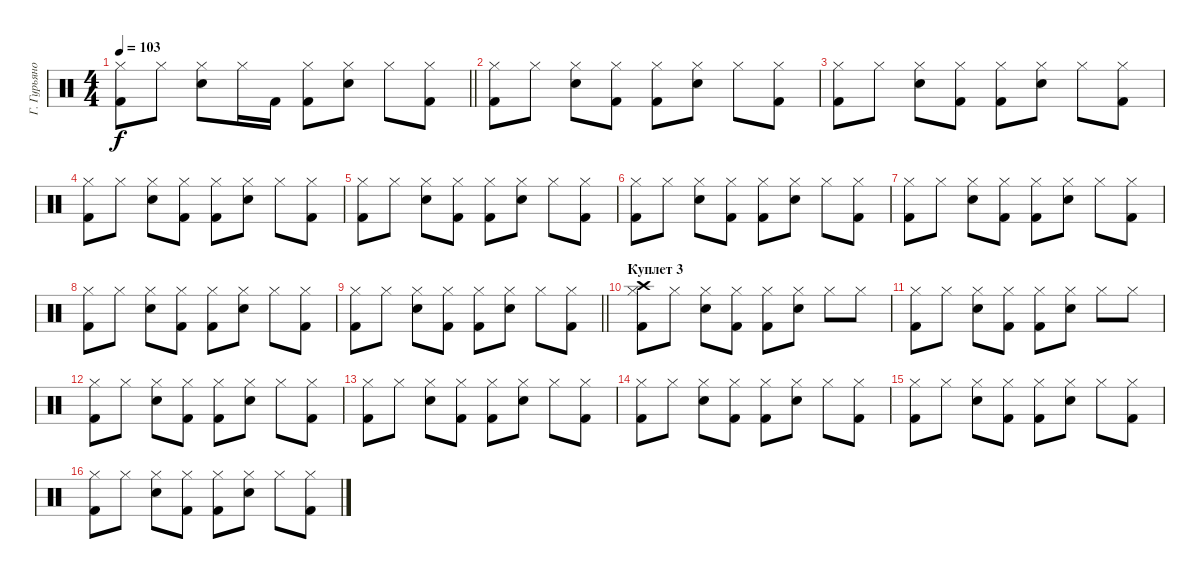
\track ("Г. Гурьянов" "Г. Гурьяно") {instrument percussion}
\staff
\articulation defaults
\ts (4 4)
\tempo 103
\clef neutral
\barLineRight lightlight
\ks c
("Hi-Hat (closed)" "Kick (hit) 2").8{dy f} "Hi-Hat (closed)".8 ("Hi-Hat (closed)" "Snare (hit) 2").8 "Hi-Hat (closed)".16 "Kick (hit) 2".16 ("Hi-Hat (closed)" "Kick (hit) 2").8 ("Hi-Hat (closed)" "Snare (hit) 2").8 "Hi-Hat (closed)".8 ("Hi-Hat (closed)" "Kick (hit) 2").8 |
("Hi-Hat (closed)" "Kick (hit) 2").8 "Hi-Hat (closed)".8 ("Hi-Hat (closed)" "Snare (hit) 2").8 ("Hi-Hat (closed)" "Kick (hit) 2").8 ("Hi-Hat (closed)" "Kick (hit) 2").8 ("Hi-Hat (closed)" "Snare (hit) 2").8 "Hi-Hat (closed)".8 ("Hi-Hat (closed)" "Kick (hit) 2").8 |
("Hi-Hat (closed)" "Kick (hit) 2").8 "Hi-Hat (closed)".8 ("Hi-Hat (closed)" "Snare (hit) 2").8 ("Hi-Hat (closed)" "Kick (hit) 2").8 ("Hi-Hat (closed)" "Kick (hit) 2").8 ("Hi-Hat (closed)" "Snare (hit) 2").8 "Hi-Hat (closed)".8 ("Hi-Hat (closed)" "Kick (hit) 2").8 |
("Hi-Hat (closed)" "Kick (hit) 2").8 "Hi-Hat (closed)".8 ("Hi-Hat (closed)" "Snare (hit) 2").8 ("Hi-Hat (closed)" "Kick (hit) 2").8 ("Hi-Hat (closed)" "Kick (hit) 2").8 ("Hi-Hat (closed)" "Snare (hit) 2").8 "Hi-Hat (closed)".8 ("Hi-Hat (closed)" "Kick (hit) 2").8 |
("Hi-Hat (closed)" "Kick (hit) 2").8 "Hi-Hat (closed)".8 ("Hi-Hat (closed)" "Snare (hit) 2").8 ("Hi-Hat (closed)" "Kick (hit) 2").8 ("Hi-Hat (closed)" "Kick (hit) 2").8 ("Hi-Hat (closed)" "Snare (hit) 2").8 "Hi-Hat (closed)".8 ("Hi-Hat (closed)" "Kick (hit) 2").8 |
("Hi-Hat (closed)" "Kick (hit) 2").8 "Hi-Hat (closed)".8 ("Hi-Hat (closed)" "Snare (hit) 2").8 ("Hi-Hat (closed)" "Kick (hit) 2").8 ("Hi-Hat (closed)" "Kick (hit) 2").8 ("Hi-Hat (closed)" "Snare (hit) 2").8 "Hi-Hat (closed)".8 ("Hi-Hat (closed)" "Kick (hit) 2").8 |
("Hi-Hat (closed)" "Kick (hit) 2").8 "Hi-Hat (closed)".8 ("Hi-Hat (closed)" "Snare (hit) 2").8 ("Hi-Hat (closed)" "Kick (hit) 2").8 ("Hi-Hat (closed)" "Kick (hit) 2").8 ("Hi-Hat (closed)" "Snare (hit) 2").8 "Hi-Hat (closed)".8 ("Hi-Hat (closed)" "Kick (hit) 2").8 |
("Hi-Hat (closed)" "Kick (hit) 2").8 "Hi-Hat (closed)".8 ("Hi-Hat (closed)" "Snare (hit) 2").8 ("Hi-Hat (closed)" "Kick (hit) 2").8 ("Hi-Hat (closed)" "Kick (hit) 2").8 ("Hi-Hat (closed)" "Snare (hit) 2").8 "Hi-Hat (closed)".8 ("Hi-Hat (closed)" "Kick (hit) 2").8 |
\barLineRight lightlight
("Hi-Hat (closed)" "Kick (hit) 2").8 "Hi-Hat (closed)".8 ("Hi-Hat (closed)" "Snare (hit) 2").8 ("Hi-Hat (closed)" "Kick (hit) 2").8 ("Hi-Hat (closed)" "Kick (hit) 2").8 ("Hi-Hat (closed)" "Snare (hit) 2").8 "Hi-Hat (closed)".8 ("Hi-Hat (closed)" "Kick (hit) 2").8 |
\section ("" "Куплет 3")
("Hi-Hat (closed)" "Crash high (hit)" "Kick (hit) 2").8 "Hi-Hat (closed)".8 ("Hi-Hat (closed)" "Snare (hit) 2").8 ("Hi-Hat (closed)" "Kick (hit) 2").8 ("Hi-Hat (closed)" "Kick (hit) 2").8 ("Hi-Hat (closed)" "Snare (hit) 2").8 "Hi-Hat (closed)".8 "Hi-Hat (closed)".8 |
("Hi-Hat (closed)" "Kick (hit) 2").8 "Hi-Hat (closed)".8 ("Hi-Hat (closed)" "Snare (hit) 2").8 ("Hi-Hat (closed)" "Kick (hit) 2").8 ("Hi-Hat (closed)" "Kick (hit) 2").8 ("Hi-Hat (closed)" "Snare (hit) 2").8 "Hi-Hat (closed)".8 "Hi-Hat (closed)".8 |
("Hi-Hat (closed)" "Kick (hit) 2").8 "Hi-Hat (closed)".8 ("Hi-Hat (closed)" "Snare (hit) 2").8 ("Hi-Hat (closed)" "Kick (hit) 2").8 ("Hi-Hat (closed)" "Kick (hit) 2").8 ("Hi-Hat (closed)" "Snare (hit) 2").8 "Hi-Hat (closed)".8 ("Hi-Hat (closed)" "Kick (hit) 2").8 |
("Hi-Hat (closed)" "Kick (hit) 2").8 "Hi-Hat (closed)".8 ("Hi-Hat (closed)" "Snare (hit) 2").8 ("Hi-Hat (closed)" "Kick (hit) 2").8 ("Hi-Hat (closed)" "Kick (hit) 2").8 ("Hi-Hat (closed)" "Snare (hit) 2").8 "Hi-Hat (closed)".8 ("Hi-Hat (closed)" "Kick (hit) 2").8 |
("Hi-Hat (closed)" "Kick (hit) 2").8 "Hi-Hat (closed)".8 ("Hi-Hat (closed)" "Snare (hit) 2").8 ("Hi-Hat (closed)" "Kick (hit) 2").8 ("Hi-Hat (closed)" "Kick (hit) 2").8 ("Hi-Hat (closed)" "Snare (hit) 2").8 "Hi-Hat (closed)".8 ("Hi-Hat (closed)" "Kick (hit) 2").8 |
("Hi-Hat (closed)" "Kick (hit) 2").8 "Hi-Hat (closed)".8 ("Hi-Hat (closed)" "Snare (hit) 2").8 ("Hi-Hat (closed)" "Kick (hit) 2").8 ("Hi-Hat (closed)" "Kick (hit) 2").8 ("Hi-Hat (closed)" "Snare (hit) 2").8 "Hi-Hat (closed)".8 ("Hi-Hat (closed)" "Kick (hit) 2").8 |
("Hi-Hat (closed)" "Kick (hit) 2").8 "Hi-Hat (closed)".8 ("Hi-Hat (closed)" "Snare (hit) 2").8 ("Hi-Hat (closed)" "Kick (hit) 2").8 ("Hi-Hat (closed)" "Kick (hit) 2").8 ("Hi-Hat (closed)" "Snare (hit) 2").8 "Hi-Hat (closed)".8 ("Hi-Hat (closed)" "Kick (hit) 2").8
